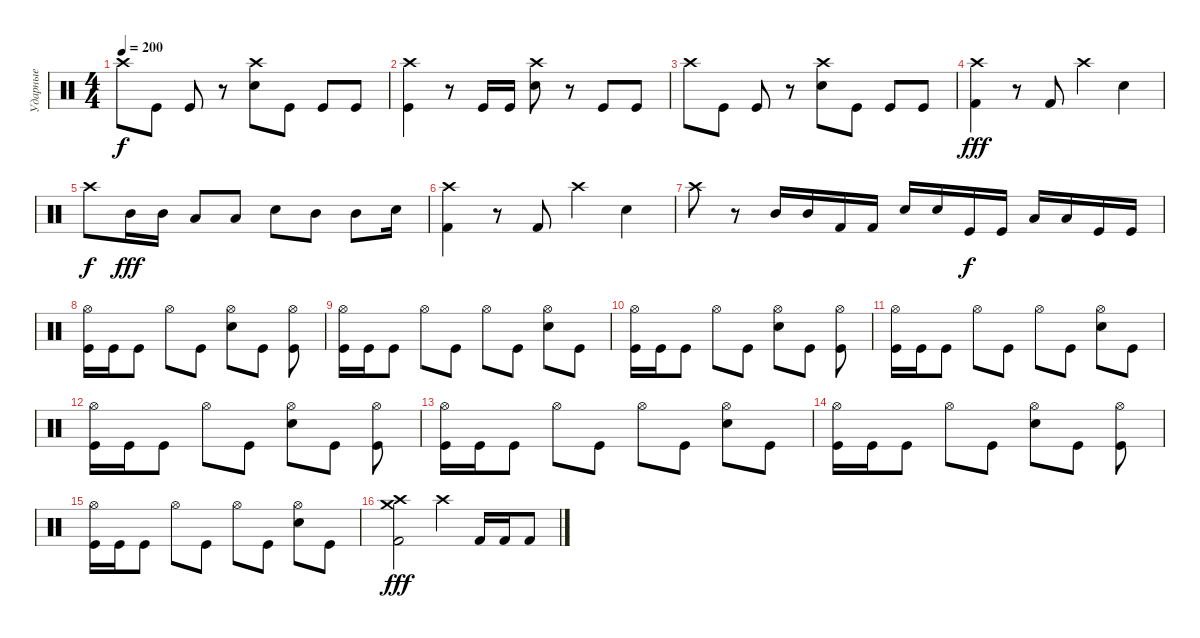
\track ("Ударные" "Ударные") {instrument percussion}
\staff {score}
\articulation defaults
\ts (4 4)
\tempo 200
\clef neutral
\ks c "Crash high (hit)".8{dy f} "Kick (hit)".8 "Kick (hit)".8
r.8 ("Snare (hit) 2" "Crash high (hit)").8 "Kick (hit)".8 "Kick (hit)".8 "Kick (hit)".8 |
("Kick (hit)" "Crash high (hit)").4 r.8 "Kick (hit)".16 "Kick (hit)".16 ("Snare (hit) 2" "Crash high (hit)").8 r.8 "Kick (hit)".8 "Kick (hit)".8 |
"Crash high (hit)".8 "Kick (hit)".8 "Kick (hit)".8 r.8 ("Snare (hit) 2" "Crash high (hit)").8 "Kick (hit)".8 "Kick (hit)".8 "Kick (hit)".8 |
("Crash high (hit)" "Kick (hit) 2").4{dy fff} r.8 "Kick (hit) 2".8 "Crash high (hit)".4 "Electric Snare (hit)".4 |
"Crash high (hit)".8{dy f} "Mid Tom (hit)".16{dy fff} "Mid Tom (hit)".16 "Low Tom (hit)".8 "Low Tom (hit)".8 "Electric Snare (hit)".8 "Mid Tom (hit)".8 "Mid Tom (hit)".8 "Electric Snare (hit)".16 |
("Crash high (hit)" "Kick (hit) 2").4 r.8 "Kick (hit) 2".8 "Crash high (hit)".4 "Electric Snare (hit)".4 |
"Crash high (hit)".8 r.8 "Mid Tom (hit)".16 "Mid Tom (hit)".16 "Kick (hit) 2".16 "Kick (hit) 2".16 "Electric Snare (hit)".16 "Electric Snare (hit)".16 "Kick (hit)".16{dy f} "Kick (hit)".16 "Low Tom (hit)".16 "Low Tom (hit)".16 "Kick (hit)".16 "Kick (hit)".16 |
("Kick (hit)" "Hi-Hat (open)").16 "Kick (hit)".16 "Kick (hit)".8 "Hi-Hat (open)".8 "Kick (hit)".8 ("Snare (hit) 2" "Hi-Hat (open)").8 "Kick (hit)".8 ("Kick (hit)" "Hi-Hat (open)").8 |
("Kick (hit)" "Hi-Hat (open)").16 "Kick (hit)".16 "Kick (hit)".8 "Hi-Hat (open)".8 "Kick (hit)".8 "Hi-Hat (open)".8 "Kick (hit)".8 ("Snare (hit) 2" "Hi-Hat (open)").8 "Kick (hit)".8 |
("Kick (hit)" "Hi-Hat (open)").16 "Kick (hit)".16 "Kick (hit)".8 "Hi-Hat (open)".8 "Kick (hit)".8 ("Snare (hit) 2" "Hi-Hat (open)").8 "Kick (hit)".8 ("Kick (hit)" "Hi-Hat (open)").8 |
("Kick (hit)" "Hi-Hat (open)").16 "Kick (hit)".16 "Kick (hit)".8 "Hi-Hat (open)".8 "Kick (hit)".8 "Hi-Hat (open)".8 "Kick (hit)".8 ("Snare (hit) 2" "Hi-Hat (open)").8 "Kick (hit)".8 |
("Kick (hit)" "Hi-Hat (open)").16 "Kick (hit)".16 "Kick (hit)".8 "Hi-Hat (open)".8 "Kick (hit)".8 ("Snare (hit) 2" "Hi-Hat (open)").8 "Kick (hit)".8 ("Kick (hit)" "Hi-Hat (open)").8 |
("Kick (hit)" "Hi-Hat (open)").16 "Kick (hit)".16 "Kick (hit)".8 "Hi-Hat (open)".8 "Kick (hit)".8 "Hi-Hat (open)".8 "Kick (hit)".8 ("Snare (hit) 2" "Hi-Hat (open)").8 "Kick (hit)".8 |
("Kick (hit)" "Hi-Hat (open)").16 "Kick (hit)".16 "Kick (hit)".8 "Hi-Hat (open)".8 "Kick (hit)".8 ("Snare (hit) 2" "Hi-Hat (open)").8 "Kick (hit)".8 ("Kick (hit)" "Hi-Hat (open)").8 |
("Kick (hit)" "Hi-Hat (open)").16 "Kick (hit)".16 "Kick (hit)".8 "Hi-Hat (open)".8 "Kick (hit)".8 "Hi-Hat (open)".8 "Kick (hit)".8 ("Snare (hit) 2" "Hi-Hat (open)").8 "Kick (hit)".8 |
("Crash high (hit)" "Kick (hit) 2" "Crash medium (hit)").2{dy fff} "Crash high (hit)".4 "Kick (hit) 2".16 "Kick (hit) 2".16 "Kick (hit) 2".8
